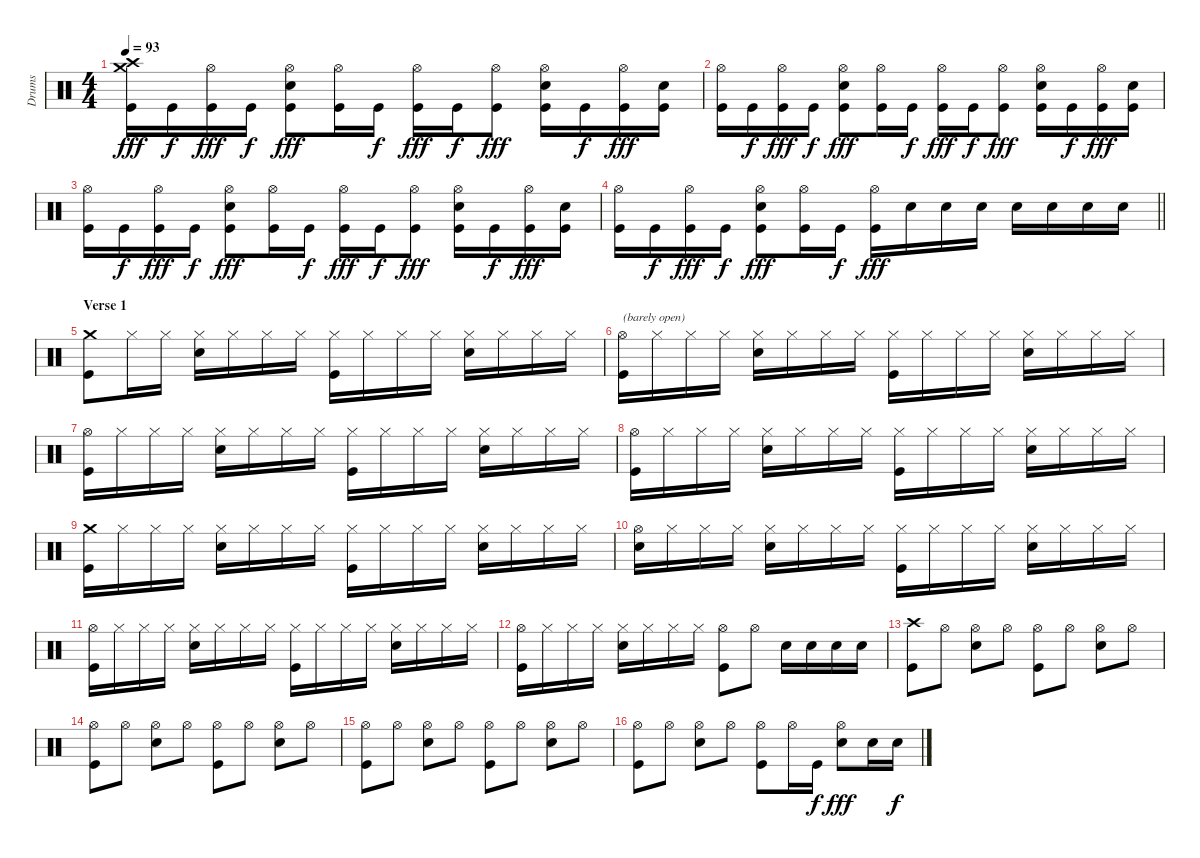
\track ("Drums" "Drums") {instrument percussion}
\staff {score}
\articulation defaults
\ts (4 4)
\tempo 93
\clef neutral
\ks c
("Crash high (hit)" "Crash medium (hit)" "Kick (hit)").16{dy fff} "Kick (hit)".16{dy f} ("Hi-Hat (open)" "Kick (hit)").16{dy fff} "Kick (hit)".16{dy f} ("Hi-Hat (open)" "Electric Snare (hit)" "Kick (hit)").8{dy fff} ("Hi-Hat (open)" "Kick (hit)").16 "Kick (hit)".16{dy f} ("Hi-Hat (open)" "Kick (hit)").16{dy fff} "Kick (hit)".16{dy f} ("Hi-Hat (open)" "Kick (hit)").8{dy fff} ("Hi-Hat (open)" "Electric Snare (hit)" "Kick (hit)").16 "Kick (hit)".16{dy f} ("Hi-Hat (open)" "Kick (hit)").16{dy fff} ("Electric Snare (hit)" "Kick (hit)").16 |
("Hi-Hat (open)" "Kick (hit)").16 "Kick (hit)".16{dy f} ("Hi-Hat (open)" "Kick (hit)").16{dy fff} "Kick (hit)".16{dy f} ("Hi-Hat (open)" "Electric Snare (hit)" "Kick (hit)").8{dy fff} ("Hi-Hat (open)" "Kick (hit)").16 "Kick (hit)".16{dy f} ("Hi-Hat (open)" "Kick (hit)").16{dy fff} "Kick (hit)".16{dy f} ("Hi-Hat (open)" "Kick (hit)").8{dy fff} ("Hi-Hat (open)" "Electric Snare (hit)" "Kick (hit)").16 "Kick (hit)".16{dy f} ("Hi-Hat (open)" "Kick (hit)").16{dy fff} ("Electric Snare (hit)" "Kick (hit)").16 |
("Hi-Hat (open)" "Kick (hit)").16 "Kick (hit)".16{dy f} ("Hi-Hat (open)" "Kick (hit)").16{dy fff} "Kick (hit)".16{dy f} ("Hi-Hat (open)" "Electric Snare (hit)" "Kick (hit)").8{dy fff} ("Hi-Hat (open)" "Kick (hit)").16 "Kick (hit)".16{dy f} ("Hi-Hat (open)" "Kick (hit)").16{dy fff} "Kick (hit)".16{dy f} ("Hi-Hat (open)" "Kick (hit)").8{dy fff} ("Hi-Hat (open)" "Electric Snare (hit)" "Kick (hit)").16 "Kick (hit)".16{dy f} ("Hi-Hat (open)" "Kick (hit)").16{dy fff} ("Electric Snare (hit)" "Kick (hit)").16 |
\barLineRight lightlight
("Hi-Hat (open)" "Kick (hit)").16 "Kick (hit)".16{dy f} ("Hi-Hat (open)" "Kick (hit)").16{dy fff} "Kick (hit)".16{dy f} ("Hi-Hat (open)" "Electric Snare (hit)" "Kick (hit)").8{dy fff} ("Hi-Hat (open)" "Kick (hit)").16 "Kick (hit)".16{dy f} ("Hi-Hat (open)" "Kick (hit)").16{dy fff} "Electric Snare (hit)".16 "Electric Snare (hit)".16 "Electric Snare (hit)".16 "Electric Snare (hit)".16 "Electric Snare (hit)".16 "Electric Snare (hit)".16 "Electric Snare (hit)".16 |
\section ("" "Verse 1")
("Crash medium (hit)" "Kick (hit)").8 "Hi-Hat (closed)".16 "Hi-Hat (closed)".16 ("Hi-Hat (closed)" "Electric Snare (hit)").16 "Hi-Hat (closed)".16 "Hi-Hat (closed)".16 "Hi-Hat (closed)".16 ("Hi-Hat (closed)" "Kick (hit)").16 "Hi-Hat (closed)".16 "Hi-Hat (closed)".16 "Hi-Hat (closed)".16 ("Hi-Hat (closed)" "Electric Snare (hit)").16 "Hi-Hat (closed)".16 "Hi-Hat (closed)".16 "Hi-Hat (closed)".16 |
("Hi-Hat (open)" "Kick (hit)").16{txt "(barely open)"} "Hi-Hat (closed)".16 "Hi-Hat (closed)".16 "Hi-Hat (closed)".16 ("Hi-Hat (closed)" "Electric Snare (hit)").16 "Hi-Hat (closed)".16 "Hi-Hat (closed)".16 "Hi-Hat (closed)".16 ("Hi-Hat (closed)" "Kick (hit)").16 "Hi-Hat (closed)".16 "Hi-Hat (closed)".16 "Hi-Hat (closed)".16 ("Hi-Hat (closed)" "Electric Snare (hit)").16 "Hi-Hat (closed)".16 "Hi-Hat (closed)".16 "Hi-Hat (closed)".16 |
("Hi-Hat (open)" "Kick (hit)").16 "Hi-Hat (closed)".16 "Hi-Hat (closed)".16 "Hi-Hat (closed)".16 ("Hi-Hat (closed)" "Electric Snare (hit)").16 "Hi-Hat (closed)".16 "Hi-Hat (closed)".16 "Hi-Hat (closed)".16 ("Hi-Hat (closed)" "Kick (hit)").16 "Hi-Hat (closed)".16 "Hi-Hat (closed)".16 "Hi-Hat (closed)".16 ("Hi-Hat (closed)" "Electric Snare (hit)").16 "Hi-Hat (closed)".16 "Hi-Hat (closed)".16 "Hi-Hat (closed)".16 |
("Hi-Hat (open)" "Kick (hit)").16 "Hi-Hat (closed)".16 "Hi-Hat (closed)".16 "Hi-Hat (closed)".16 ("Hi-Hat (closed)" "Electric Snare (hit)").16 "Hi-Hat (closed)".16 "Hi-Hat (closed)".16 "Hi-Hat (closed)".16 ("Hi-Hat (closed)" "Kick (hit)").16 "Hi-Hat (closed)".16 "Hi-Hat (closed)".16 "Hi-Hat (closed)".16 ("Hi-Hat (closed)" "Electric Snare (hit)").16 "Hi-Hat (closed)".16 "Hi-Hat (closed)".16 "Hi-Hat (closed)".16 |
("Crash medium (hit)" "Kick (hit)").16 "Hi-Hat (closed)".16 "Hi-Hat (closed)".16 "Hi-Hat (closed)".16 ("Hi-Hat (closed)" "Electric Snare (hit)").16 "Hi-Hat (closed)".16 "Hi-Hat (closed)".16 "Hi-Hat (closed)".16 ("Hi-Hat (closed)" "Kick (hit)").16 "Hi-Hat (closed)".16 "Hi-Hat (closed)".16 "Hi-Hat (closed)".16 ("Hi-Hat (closed)" "Electric Snare (hit)").16 "Hi-Hat (closed)".16 "Hi-Hat (closed)".16 "Hi-Hat (closed)".16 |
("Hi-Hat (open)" "Snare (hit)").16 "Hi-Hat (closed)".16 "Hi-Hat (closed)".16 "Hi-Hat (closed)".16 ("Hi-Hat (closed)" "Electric Snare (hit)").16 "Hi-Hat (closed)".16 "Hi-Hat (closed)".16 "Hi-Hat (closed)".16 ("Hi-Hat (closed)" "Kick (hit)").16 "Hi-Hat (closed)".16 "Hi-Hat (closed)".16 "Hi-Hat (closed)".16 ("Hi-Hat (closed)" "Electric Snare (hit)").16 "Hi-Hat (closed)".16 "Hi-Hat (closed)".16 "Hi-Hat (closed)".16 |
("Hi-Hat (open)" "Kick (hit)").16 "Hi-Hat (closed)".16 "Hi-Hat (closed)".16 "Hi-Hat (closed)".16 ("Hi-Hat (closed)" "Electric Snare (hit)").16 "Hi-Hat (closed)".16 "Hi-Hat (closed)".16 "Hi-Hat (closed)".16 ("Hi-Hat (closed)" "Kick (hit)").16 "Hi-Hat (closed)".16 "Hi-Hat (closed)".16 "Hi-Hat (closed)".16 ("Hi-Hat (closed)" "Electric Snare (hit)").16 "Hi-Hat (closed)".16 "Hi-Hat (closed)".16 "Hi-Hat (closed)".16 |
("Hi-Hat (open)" "Kick (hit)").16 "Hi-Hat (closed)".16 "Hi-Hat (closed)".16 "Hi-Hat (closed)".16 ("Hi-Hat (closed)" "Electric Snare (hit)").16 "Hi-Hat (closed)".16 "Hi-Hat (closed)".16 "Hi-Hat (closed)".16 ("Hi-Hat (open)" "Kick (hit)").8 "Hi-Hat (open)".8 "Electric Snare (hit)".16 "Electric Snare (hit)".16 "Electric Snare (hit)".16 "Electric Snare (hit)".16 |
("Crash high (hit)" "Kick (hit)").8 "Hi-Hat (open)".8 ("Hi-Hat (open)" "Electric Snare (hit)").8 "Hi-Hat (open)".8 ("Hi-Hat (open)" "Kick (hit)").8 "Hi-Hat (open)".8 ("Hi-Hat (open)" "Electric Snare (hit)").8 "Hi-Hat (open)".8 |
("Hi-Hat (open)" "Kick (hit)").8 "Hi-Hat (open)".8 ("Hi-Hat (open)" "Electric Snare (hit)").8 "Hi-Hat (open)".8 ("Hi-Hat (open)" "Kick (hit)").8 "Hi-Hat (open)".8 ("Hi-Hat (open)" "Electric Snare (hit)").8 "Hi-Hat (open)".8 |
("Hi-Hat (open)" "Kick (hit)").8 "Hi-Hat (open)".8 ("Hi-Hat (open)" "Electric Snare (hit)").8 "Hi-Hat (open)".8 ("Hi-Hat (open)" "Kick (hit)").8 "Hi-Hat (open)".8 ("Hi-Hat (open)" "Electric Snare (hit)").8 "Hi-Hat (open)".8 |
("Hi-Hat (open)" "Kick (hit)").8 "Hi-Hat (open)".8 ("Hi-Hat (open)" "Snare (hit) 2").8 "Hi-Hat (open)".8 ("Hi-Hat (open)" "Kick (hit)").8 "Hi-Hat (open)".16 "Kick (hit)".16{dy f} ("Hi-Hat (open)" "Snare (hit) 2").8{dy fff} "Snare (hit) 2".16 "Snare (hit) 2".16{dy f}
